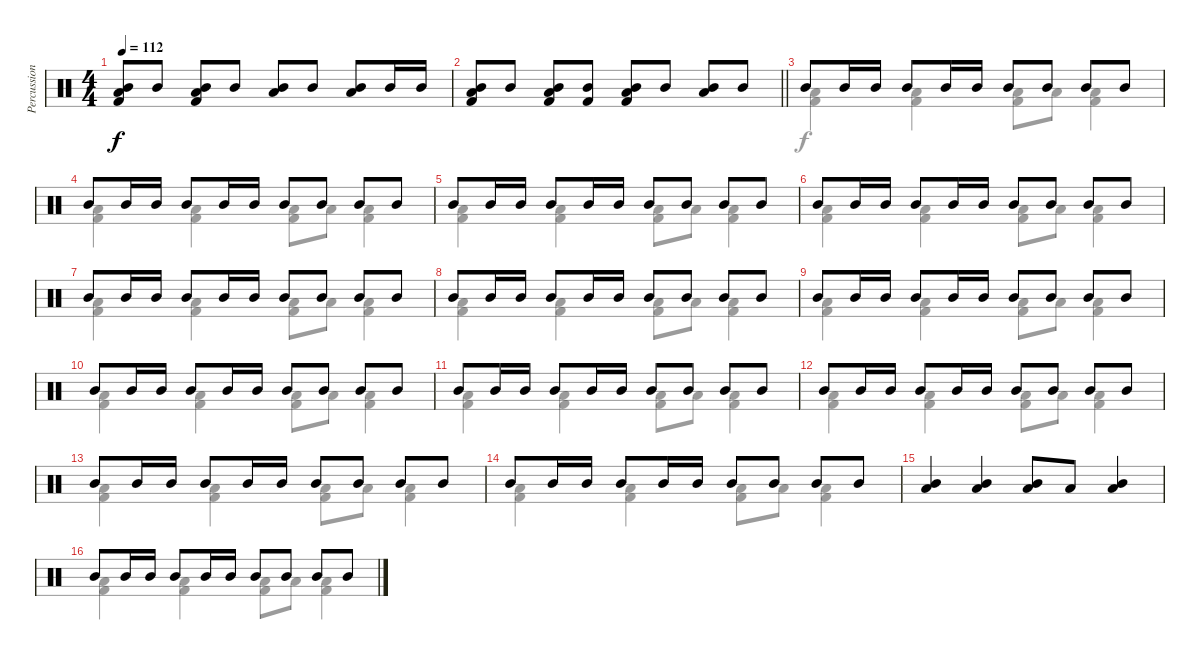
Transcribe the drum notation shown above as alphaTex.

\track ("Percussion" "Percussion") {instrument percussion}
\staff {score}
\articulation defaults
\voice
\ts (4 4)
\tempo 112
\clef neutral
\ks c
("Mid Tom (hit)" "Low Floor Tom (hit)" "Kick (hit) 2").8{dy f} "Mid Tom (hit)".8 ("Mid Tom (hit)" "Low Floor Tom (hit)" "Kick (hit) 2").8 "Mid Tom (hit)".8 ("Mid Tom (hit)" "Low Tom (hit)").8 "Mid Tom (hit)".8 ("Mid Tom (hit)" "Low Tom (hit)").8 "Mid Tom (hit)".16 "Mid Tom (hit)".16 |
\barLineRight lightlight
("Mid Tom (hit)" "Low Floor Tom (hit)" "Kick (hit) 2").8 "Mid Tom (hit)".8 ("Mid Tom (hit)" "Low Floor Tom (hit)" "Kick (hit) 2").8 ("Mid Tom (hit)" "Kick (hit) 2").8 ("Mid Tom (hit)" "Low Tom (hit)" "Kick (hit) 2").8 "Mid Tom (hit)".8 ("Mid Tom (hit)" "Low Tom (hit)").8 "Mid Tom (hit)".8 |
"Mid Tom (hit)".8 "Mid Tom (hit)".16 "Mid Tom (hit)".16 "Mid Tom (hit)".8 "Mid Tom (hit)".16 "Mid Tom (hit)".16 "Mid Tom (hit)".8 "Mid Tom (hit)".8 "Mid Tom (hit)".8 "Mid Tom (hit)".8 |
"Mid Tom (hit)".8 "Mid Tom (hit)".16 "Mid Tom (hit)".16 "Mid Tom (hit)".8 "Mid Tom (hit)".16 "Mid Tom (hit)".16 "Mid Tom (hit)".8 "Mid Tom (hit)".8 "Mid Tom (hit)".8 "Mid Tom (hit)".8 |
"Mid Tom (hit)".8 "Mid Tom (hit)".16 "Mid Tom (hit)".16 "Mid Tom (hit)".8 "Mid Tom (hit)".16 "Mid Tom (hit)".16 "Mid Tom (hit)".8 "Mid Tom (hit)".8 "Mid Tom (hit)".8 "Mid Tom (hit)".8 |
"Mid Tom (hit)".8 "Mid Tom (hit)".16 "Mid Tom (hit)".16 "Mid Tom (hit)".8 "Mid Tom (hit)".16 "Mid Tom (hit)".16 "Mid Tom (hit)".8 "Mid Tom (hit)".8 "Mid Tom (hit)".8 "Mid Tom (hit)".8 |
"Mid Tom (hit)".8 "Mid Tom (hit)".16 "Mid Tom (hit)".16 "Mid Tom (hit)".8 "Mid Tom (hit)".16 "Mid Tom (hit)".16 "Mid Tom (hit)".8 "Mid Tom (hit)".8 "Mid Tom (hit)".8 "Mid Tom (hit)".8 |
"Mid Tom (hit)".8 "Mid Tom (hit)".16 "Mid Tom (hit)".16 "Mid Tom (hit)".8 "Mid Tom (hit)".16 "Mid Tom (hit)".16 "Mid Tom (hit)".8 "Mid Tom (hit)".8 "Mid Tom (hit)".8 "Mid Tom (hit)".8 |
"Mid Tom (hit)".8 "Mid Tom (hit)".16 "Mid Tom (hit)".16 "Mid Tom (hit)".8 "Mid Tom (hit)".16 "Mid Tom (hit)".16 "Mid Tom (hit)".8 "Mid Tom (hit)".8 "Mid Tom (hit)".8 "Mid Tom (hit)".8 |
"Mid Tom (hit)".8 "Mid Tom (hit)".16 "Mid Tom (hit)".16 "Mid Tom (hit)".8 "Mid Tom (hit)".16 "Mid Tom (hit)".16 "Mid Tom (hit)".8 "Mid Tom (hit)".8 "Mid Tom (hit)".8 "Mid Tom (hit)".8 |
"Mid Tom (hit)".8 "Mid Tom (hit)".16 "Mid Tom (hit)".16 "Mid Tom (hit)".8 "Mid Tom (hit)".16 "Mid Tom (hit)".16 "Mid Tom (hit)".8 "Mid Tom (hit)".8 "Mid Tom (hit)".8 "Mid Tom (hit)".8 |
"Mid Tom (hit)".8 "Mid Tom (hit)".16 "Mid Tom (hit)".16 "Mid Tom (hit)".8 "Mid Tom (hit)".16 "Mid Tom (hit)".16 "Mid Tom (hit)".8 "Mid Tom (hit)".8 "Mid Tom (hit)".8 "Mid Tom (hit)".8 |
"Mid Tom (hit)".8 "Mid Tom (hit)".16 "Mid Tom (hit)".16 "Mid Tom (hit)".8 "Mid Tom (hit)".16 "Mid Tom (hit)".16 "Mid Tom (hit)".8 "Mid Tom (hit)".8 "Mid Tom (hit)".8 "Mid Tom (hit)".8 |
"Mid Tom (hit)".8 "Mid Tom (hit)".16 "Mid Tom (hit)".16 "Mid Tom (hit)".8 "Mid Tom (hit)".16 "Mid Tom (hit)".16 "Mid Tom (hit)".8 "Mid Tom (hit)".8 "Mid Tom (hit)".8 "Mid Tom (hit)".8 |
("Mid Tom (hit)" "Low Tom (hit)").4 ("Mid Tom (hit)" "Low Floor Tom (hit)").4 ("Mid Tom (hit)" "Low Floor Tom (hit)").8 "Low Floor Tom (hit)".8 ("Mid Tom (hit)" "Low Tom (hit)").4 |
"Mid Tom (hit)".8 "Mid Tom (hit)".16 "Mid Tom (hit)".16 "Mid Tom (hit)".8 "Mid Tom (hit)".16 "Mid Tom (hit)".16 "Mid Tom (hit)".8 "Mid Tom (hit)".8 "Mid Tom (hit)".8 "Mid Tom (hit)".8
\voice
\clef neutral
\ottava regular
\simile none
\ks c
|
\barLineRight lightlight
|
("Low Tom (hit)" "Kick (hit) 2").4 ("Low Floor Tom (hit)" "Kick (hit) 2").4 ("Low Floor Tom (hit)" "Kick (hit) 2").8 "Low Floor Tom (hit)".8 ("Low Tom (hit)" "Kick (hit) 2").4 |
("Low Tom (hit)" "Kick (hit) 2").4 ("Low Floor Tom (hit)" "Kick (hit) 2").4 ("Low Floor Tom (hit)" "Kick (hit) 2").8 "Low Floor Tom (hit)".8 ("Low Tom (hit)" "Kick (hit) 2").4 |
("Low Tom (hit)" "Kick (hit) 2").4 ("Low Floor Tom (hit)" "Kick (hit) 2").4 ("Low Floor Tom (hit)" "Kick (hit) 2").8 "Low Floor Tom (hit)".8 ("Low Tom (hit)" "Kick (hit) 2").4 |
("Low Tom (hit)" "Kick (hit) 2").4 ("Low Floor Tom (hit)" "Kick (hit) 2").4 ("Low Floor Tom (hit)" "Kick (hit) 2").8 "Low Floor Tom (hit)".8 ("Low Tom (hit)" "Kick (hit) 2").4 |
("Low Tom (hit)" "Kick (hit) 2").4 ("Low Floor Tom (hit)" "Kick (hit) 2").4 ("Low Floor Tom (hit)" "Kick (hit) 2").8 "Low Floor Tom (hit)".8 ("Low Tom (hit)" "Kick (hit) 2").4 |
("Low Tom (hit)" "Kick (hit) 2").4 ("Low Floor Tom (hit)" "Kick (hit) 2").4 ("Low Floor Tom (hit)" "Kick (hit) 2").8 "Low Floor Tom (hit)".8 ("Low Tom (hit)" "Kick (hit) 2").4 |
("Low Tom (hit)" "Kick (hit) 2").4 ("Low Floor Tom (hit)" "Kick (hit) 2").4 ("Low Floor Tom (hit)" "Kick (hit) 2").8 "Low Floor Tom (hit)".8 ("Low Tom (hit)" "Kick (hit) 2").4 |
("Low Tom (hit)" "Kick (hit) 2").4 ("Low Floor Tom (hit)" "Kick (hit) 2").4 ("Low Floor Tom (hit)" "Kick (hit) 2").8 "Low Floor Tom (hit)".8 ("Low Tom (hit)" "Kick (hit) 2").4 |
("Low Tom (hit)" "Kick (hit) 2").4 ("Low Floor Tom (hit)" "Kick (hit) 2").4 ("Low Floor Tom (hit)" "Kick (hit) 2").8 "Low Floor Tom (hit)".8 ("Low Tom (hit)" "Kick (hit) 2").4 |
("Low Tom (hit)" "Kick (hit) 2").4 ("Low Floor Tom (hit)" "Kick (hit) 2").4 ("Low Floor Tom (hit)" "Kick (hit) 2").8 "Low Floor Tom (hit)".8 ("Low Tom (hit)" "Kick (hit) 2").4 |
("Low Tom (hit)" "Kick (hit) 2").4 ("Low Floor Tom (hit)" "Kick (hit) 2").4 ("Low Floor Tom (hit)" "Kick (hit) 2").8 "Low Floor Tom (hit)".8 ("Low Tom (hit)" "Kick (hit) 2").4 |
("Low Tom (hit)" "Kick (hit) 2").4 ("Low Floor Tom (hit)" "Kick (hit) 2").4 ("Low Floor Tom (hit)" "Kick (hit) 2").8 "Low Floor Tom (hit)".8 ("Low Tom (hit)" "Kick (hit) 2").4 |
|
("Low Tom (hit)" "Kick (hit) 2").4 ("Low Floor Tom (hit)" "Kick (hit) 2").4 ("Low Floor Tom (hit)" "Kick (hit) 2").8 "Low Floor Tom (hit)".8 ("Low Tom (hit)" "Kick (hit) 2").4
